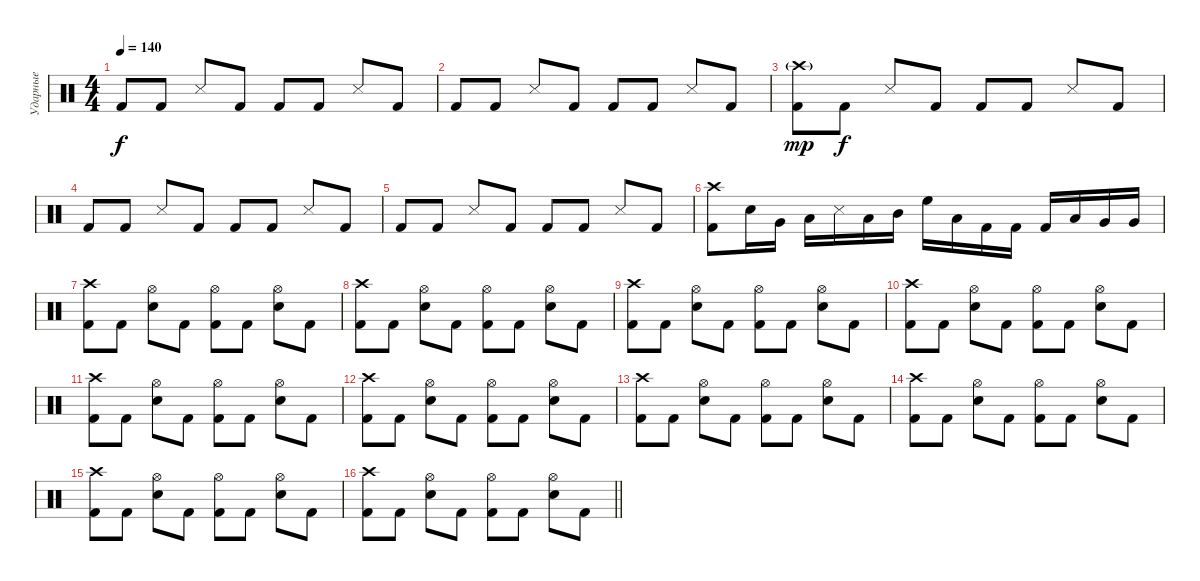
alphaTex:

\track ("Ударные" "Ударные") {instrument percussion}
\staff {score}
\articulation defaults
\ts (4 4)
\tempo 140
\clef neutral
\ks c "Kick (hit) 2".8{dy f} "Kick (hit) 2".8 "Snare (side stick) 3".8 "Kick (hit) 2".8 "Kick (hit) 2".8 "Kick (hit) 2".8 "Snare (side stick) 3".8 "Kick (hit) 2".8
|
"Kick (hit) 2".8 "Kick (hit) 2".8 "Snare (side stick) 3".8 "Kick (hit) 2".8 "Kick (hit) 2".8 "Kick (hit) 2".8 "Snare (side stick) 3".8 "Kick (hit) 2".8 |
("Crash high (hit)"{g} "Kick (hit) 2").8{dy mp} "Kick (hit) 2".8{dy f} "Snare (side stick) 3".8 "Kick (hit) 2".8 "Kick (hit) 2".8 "Kick (hit) 2".8 "Snare (side stick) 3".8 "Kick (hit) 2".8 |
"Kick (hit) 2".8 "Kick (hit) 2".8 "Snare (side stick) 3".8 "Kick (hit) 2".8 "Kick (hit) 2".8 "Kick (hit) 2".8 "Snare (side stick) 3".8 "Kick (hit) 2".8 |
"Kick (hit) 2".8 "Kick (hit) 2".8 "Snare (side stick) 3".8 "Kick (hit) 2".8 "Kick (hit) 2".8 "Kick (hit) 2".8 "Snare (side stick) 3".8 "Kick (hit) 2".8 |
("Crash high (hit)" "Kick (hit) 2").8 "Electric Snare (hit)".16 "Very Low Tom (hit)".16 "Low Tom (hit)".16 "Snare (side stick) 3".16 "Low Tom (hit)".16 "Mid Tom (hit)".16 "High Floor Tom (hit)".16 "Low Tom (hit)".16 "Kick (hit) 2".16 "Kick (hit) 2".16 "Kick (hit) 2".16 "Low Tom (hit)".16 "Very Low Tom (hit)".16 "Very Low Tom (hit)".16 |
("Crash high (hit)" "Kick (hit) 2").8 "Kick (hit) 2".8 ("Hi-Hat (open)" "Electric Snare (hit)").8 "Kick (hit) 2".8 ("Hi-Hat (open)" "Kick (hit) 2").8 "Kick (hit) 2".8 ("Hi-Hat (open)" "Electric Snare (hit)").8 "Kick (hit) 2".8 |
("Crash high (hit)" "Kick (hit) 2").8 "Kick (hit) 2".8 ("Hi-Hat (open)" "Electric Snare (hit)").8 "Kick (hit) 2".8 ("Hi-Hat (open)" "Kick (hit) 2").8 "Kick (hit) 2".8 ("Hi-Hat (open)" "Electric Snare (hit)").8 "Kick (hit) 2".8 |
("Crash high (hit)" "Kick (hit) 2").8 "Kick (hit) 2".8 ("Hi-Hat (open)" "Electric Snare (hit)").8 "Kick (hit) 2".8 ("Hi-Hat (open)" "Kick (hit) 2").8 "Kick (hit) 2".8 ("Hi-Hat (open)" "Electric Snare (hit)").8 "Kick (hit) 2".8 |
("Crash high (hit)" "Kick (hit) 2").8 "Kick (hit) 2".8 ("Hi-Hat (open)" "Electric Snare (hit)").8 "Kick (hit) 2".8 ("Hi-Hat (open)" "Kick (hit) 2").8 "Kick (hit) 2".8 ("Hi-Hat (open)" "Electric Snare (hit)").8 "Kick (hit) 2".8 |
("Crash high (hit)" "Kick (hit) 2").8 "Kick (hit) 2".8 ("Hi-Hat (open)" "Electric Snare (hit)").8 "Kick (hit) 2".8 ("Hi-Hat (open)" "Kick (hit) 2").8 "Kick (hit) 2".8 ("Hi-Hat (open)" "Electric Snare (hit)").8 "Kick (hit) 2".8 |
("Crash high (hit)" "Kick (hit) 2").8 "Kick (hit) 2".8 ("Hi-Hat (open)" "Electric Snare (hit)").8 "Kick (hit) 2".8 ("Hi-Hat (open)" "Kick (hit) 2").8 "Kick (hit) 2".8 ("Hi-Hat (open)" "Electric Snare (hit)").8 "Kick (hit) 2".8 |
("Crash high (hit)" "Kick (hit) 2").8 "Kick (hit) 2".8 ("Hi-Hat (open)" "Electric Snare (hit)").8 "Kick (hit) 2".8 ("Hi-Hat (open)" "Kick (hit) 2").8 "Kick (hit) 2".8 ("Hi-Hat (open)" "Electric Snare (hit)").8 "Kick (hit) 2".8 |
("Crash high (hit)" "Kick (hit) 2").8 "Kick (hit) 2".8 ("Hi-Hat (open)" "Electric Snare (hit)").8 "Kick (hit) 2".8 ("Hi-Hat (open)" "Kick (hit) 2").8 "Kick (hit) 2".8 ("Hi-Hat (open)" "Electric Snare (hit)").8 "Kick (hit) 2".8 |
("Crash high (hit)" "Kick (hit) 2").8 "Kick (hit) 2".8 ("Hi-Hat (open)" "Electric Snare (hit)").8 "Kick (hit) 2".8 ("Hi-Hat (open)" "Kick (hit) 2").8 "Kick (hit) 2".8 ("Hi-Hat (open)" "Electric Snare (hit)").8 "Kick (hit) 2".8 |
\barLineRight lightlight
("Crash high (hit)" "Kick (hit) 2").8 "Kick (hit) 2".8 ("Hi-Hat (open)" "Electric Snare (hit)").8 "Kick (hit) 2".8 ("Hi-Hat (open)" "Kick (hit) 2").8 "Kick (hit) 2".8 ("Hi-Hat (open)" "Electric Snare (hit)").8 "Kick (hit) 2".8
